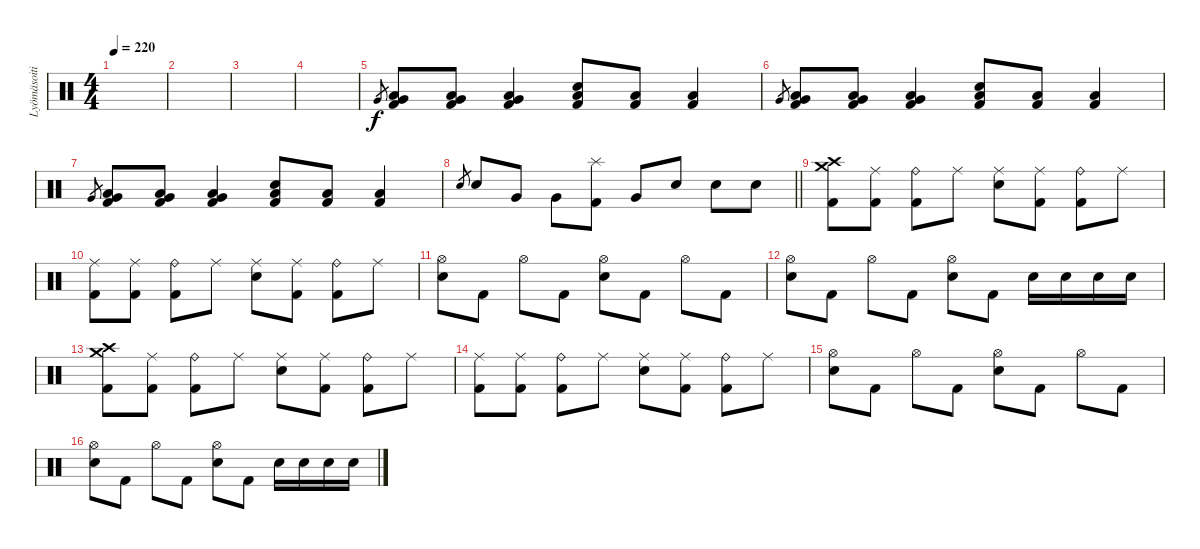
\track ("Lyömäsoitin" "Lyömäsoiti") {instrument percussion}
\staff {score}
\articulation defaults
\ts (4 4)
\tempo 220
\clef neutral
\ks c
|
|
|
|
"Very Low Tom (hit)".8{gr} ("Very Low Tom (hit)" "Low Floor Tom (hit)" "Kick (hit) 2").8 ("Very Low Tom (hit)" "Low Floor Tom (hit)" "Kick (hit) 2").8 ("Very Low Tom (hit)" "Low Floor Tom (hit)" "Kick (hit) 2").4 ("Electric Snare (hit)" "Low Floor Tom (hit)" "Kick (hit) 2").8 ("Low Floor Tom (hit)" "Kick (hit) 2").8 ("Low Floor Tom (hit)" "Kick (hit) 2").4 |
"Very Low Tom (hit)".8{gr} ("Very Low Tom (hit)" "Low Floor Tom (hit)" "Kick (hit) 2").8 ("Very Low Tom (hit)" "Low Floor Tom (hit)" "Kick (hit) 2").8 ("Very Low Tom (hit)" "Low Floor Tom (hit)" "Kick (hit) 2").4 ("Electric Snare (hit)" "Low Floor Tom (hit)" "Kick (hit) 2").8 ("Low Floor Tom (hit)" "Kick (hit) 2").8 ("Low Floor Tom (hit)" "Kick (hit) 2").4 |
"Very Low Tom (hit)".8{gr} ("Very Low Tom (hit)" "Low Floor Tom (hit)" "Kick (hit) 2").8 ("Very Low Tom (hit)" "Low Floor Tom (hit)" "Kick (hit) 2").8 ("Very Low Tom (hit)" "Low Floor Tom (hit)" "Kick (hit) 2").4 ("Electric Snare (hit)" "Low Floor Tom (hit)" "Kick (hit) 2").8 ("Low Floor Tom (hit)" "Kick (hit) 2").8 ("Low Floor Tom (hit)" "Kick (hit) 2").4 |
\barLineRight lightlight "Electric Snare (hit)".8{gr} "Electric Snare (hit)".8 "Very Low Tom (hit)".8 "Very Low Tom (hit)".8
("Splash (hit)" "Kick (hit) 2").8 "Very Low Tom (hit)".8 "Electric Snare (hit)".8 "Electric Snare (hit)".8 "Electric Snare (hit)".8 |
\section ("" "")
("Crash medium (hit)" "Crash high (hit)" "Kick (hit) 2").8 ("Ride (middle)" "Kick (hit) 2").8 ("Ride (bell)" "Kick (hit) 2").8 "Ride (middle)".8 ("Ride (middle)" "Electric Snare (hit)").8 ("Ride (middle)" "Kick (hit) 2").8 ("Ride (bell)" "Kick (hit) 2").8 "Ride (middle)".8 |
("Ride (middle)" "Kick (hit) 2").8 ("Ride (middle)" "Kick (hit) 2").8 ("Ride (bell)" "Kick (hit) 2").8 "Ride (middle)".8 ("Ride (middle)" "Electric Snare (hit)").8 ("Ride (middle)" "Kick (hit) 2").8 ("Ride (bell)" "Kick (hit) 2").8 "Ride (middle)".8 |
("Hi-Hat (open)" "Electric Snare (hit)").8 "Kick (hit) 2".8 "Hi-Hat (open)".8 "Kick (hit) 2".8 ("Hi-Hat (open)" "Electric Snare (hit)").8 "Kick (hit) 2".8 "Hi-Hat (open)".8 "Kick (hit) 2".8 |
("Hi-Hat (open)" "Electric Snare (hit)").8 "Kick (hit) 2".8 "Hi-Hat (open)".8 "Kick (hit) 2".8 ("Hi-Hat (open)" "Electric Snare (hit)").8 "Kick (hit) 2".8 "Electric Snare (hit)".16 "Electric Snare (hit)".16 "Electric Snare (hit)".16 "Electric Snare (hit)".16 |
("Crash medium (hit)" "Crash high (hit)" "Kick (hit) 2").8 ("Ride (middle)" "Kick (hit) 2").8 ("Ride (bell)" "Kick (hit) 2").8 "Ride (middle)".8 ("Ride (middle)" "Electric Snare (hit)").8 ("Ride (middle)" "Kick (hit) 2").8 ("Ride (bell)" "Kick (hit) 2").8 "Ride (middle)".8 |
("Ride (middle)" "Kick (hit) 2").8 ("Ride (middle)" "Kick (hit) 2").8 ("Ride (bell)" "Kick (hit) 2").8 "Ride (middle)".8 ("Ride (middle)" "Electric Snare (hit)").8 ("Ride (middle)" "Kick (hit) 2").8 ("Ride (bell)" "Kick (hit) 2").8 "Ride (middle)".8 |
("Hi-Hat (open)" "Electric Snare (hit)").8 "Kick (hit) 2".8 "Hi-Hat (open)".8 "Kick (hit) 2".8 ("Hi-Hat (open)" "Electric Snare (hit)").8 "Kick (hit) 2".8 "Hi-Hat (open)".8 "Kick (hit) 2".8 |
("Hi-Hat (open)" "Electric Snare (hit)").8 "Kick (hit) 2".8 "Hi-Hat (open)".8 "Kick (hit) 2".8 ("Hi-Hat (open)" "Electric Snare (hit)").8 "Kick (hit) 2".8 "Electric Snare (hit)".16 "Electric Snare (hit)".16 "Electric Snare (hit)".16 "Electric Snare (hit)".16
